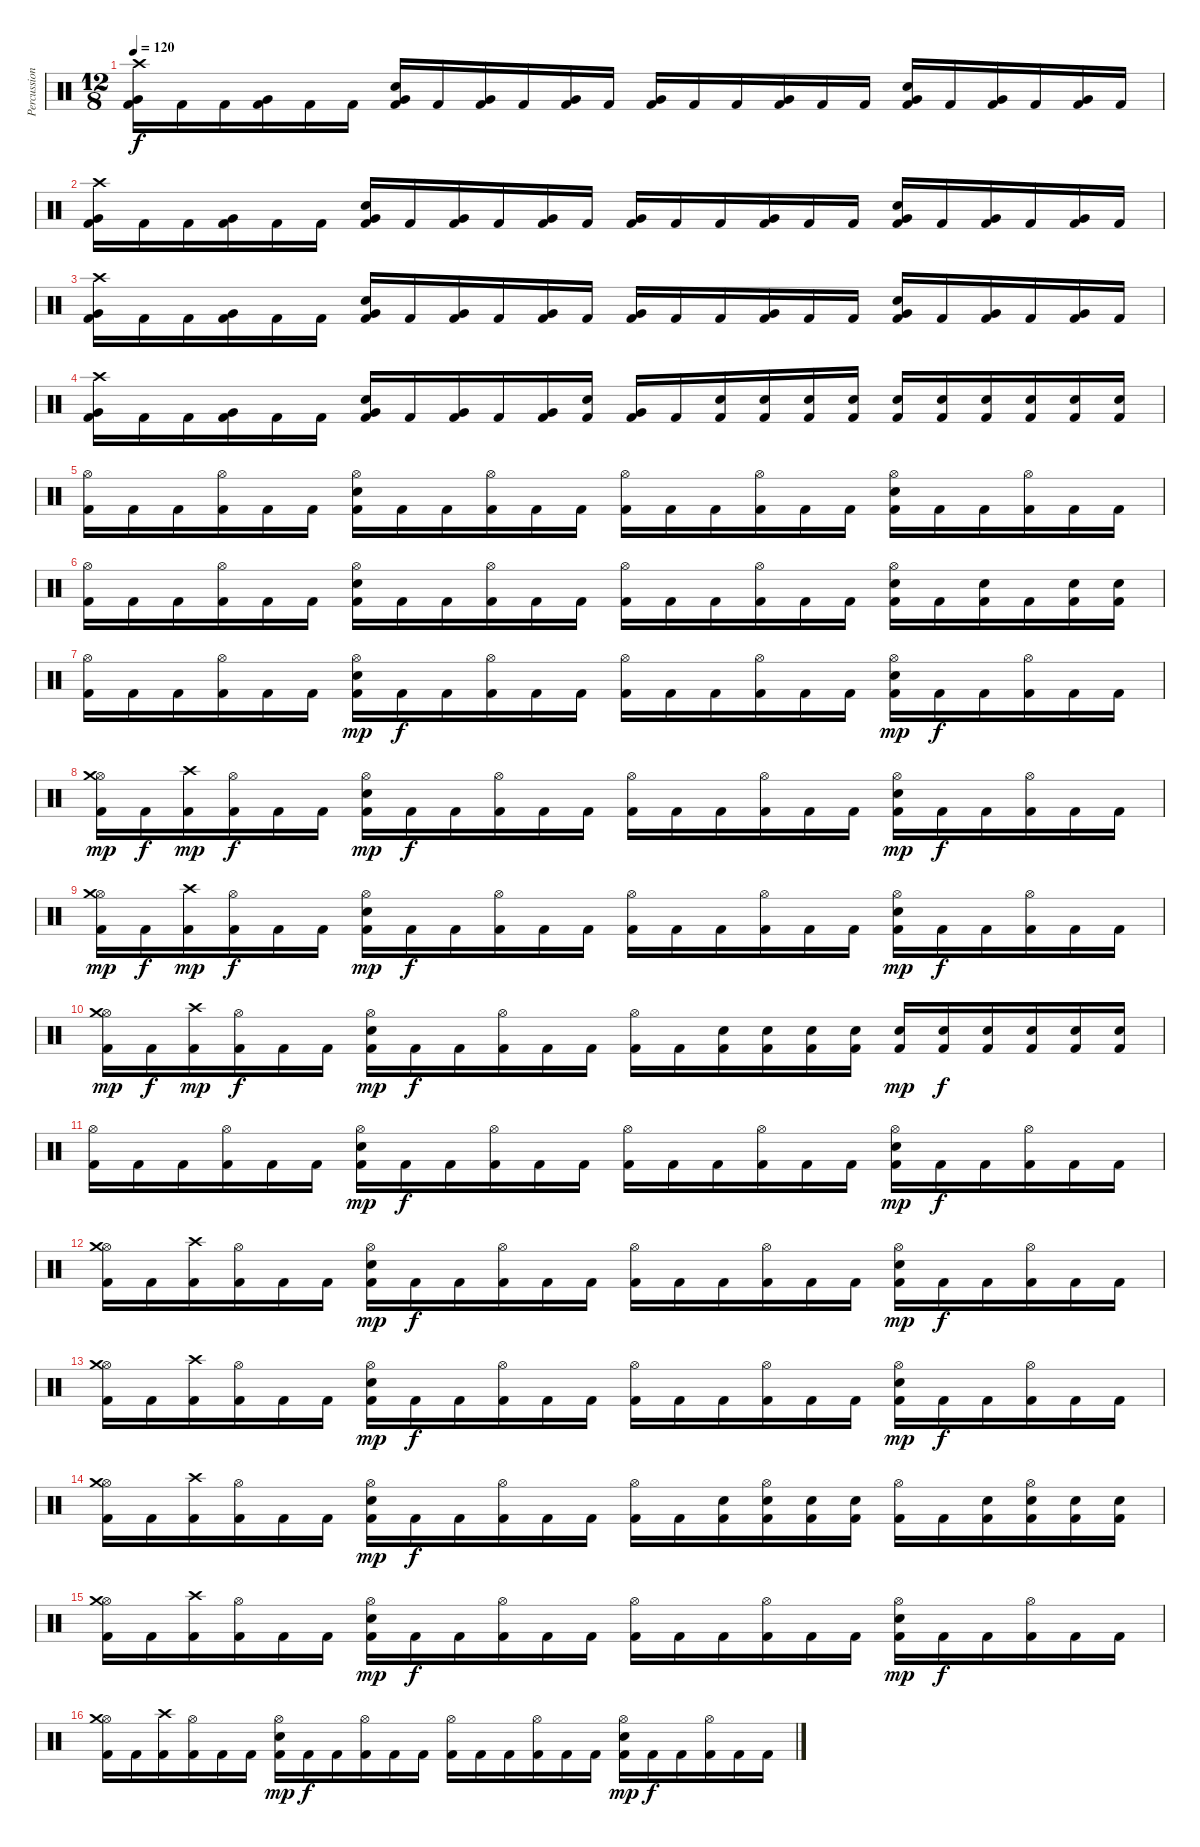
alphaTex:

\track ("Percussions" "Percussion") {instrument percussion}
\staff {score}
\articulation defaults
\ts (12 8)
\tempo 120
\clef neutral
\ks c
("Very Low Tom (hit)" "Kick (hit) 2" "Crash high (hit)").16{dy f} "Kick (hit) 2".16 "Kick (hit) 2".16 ("Very Low Tom (hit)" "Kick (hit) 2").16 "Kick (hit) 2".16 "Kick (hit) 2".16 ("Very Low Tom (hit)" "Kick (hit) 2" "Snare (hit) 2").16 "Kick (hit) 2".16 ("Very Low Tom (hit)" "Kick (hit) 2").16 "Kick (hit) 2".16 ("Very Low Tom (hit)" "Kick (hit) 2").16 "Kick (hit) 2".16 ("Very Low Tom (hit)" "Kick (hit) 2").16 "Kick (hit) 2".16 "Kick (hit) 2".16 ("Very Low Tom (hit)" "Kick (hit) 2").16 "Kick (hit) 2".16 "Kick (hit) 2".16 ("Very Low Tom (hit)" "Kick (hit) 2" "Snare (hit) 2").16 "Kick (hit) 2".16 ("Very Low Tom (hit)" "Kick (hit) 2").16 "Kick (hit) 2".16 ("Very Low Tom (hit)" "Kick (hit) 2").16 "Kick (hit) 2".16 |
("Very Low Tom (hit)" "Kick (hit) 2" "Crash high (hit)").16 "Kick (hit) 2".16 "Kick (hit) 2".16 ("Very Low Tom (hit)" "Kick (hit) 2").16 "Kick (hit) 2".16 "Kick (hit) 2".16 ("Very Low Tom (hit)" "Kick (hit) 2" "Snare (hit) 2").16 "Kick (hit) 2".16 ("Very Low Tom (hit)" "Kick (hit) 2").16 "Kick (hit) 2".16 ("Very Low Tom (hit)" "Kick (hit) 2").16 "Kick (hit) 2".16 ("Very Low Tom (hit)" "Kick (hit) 2").16 "Kick (hit) 2".16 "Kick (hit) 2".16 ("Very Low Tom (hit)" "Kick (hit) 2").16 "Kick (hit) 2".16 "Kick (hit) 2".16 ("Very Low Tom (hit)" "Kick (hit) 2" "Snare (hit) 2").16 "Kick (hit) 2".16 ("Very Low Tom (hit)" "Kick (hit) 2").16 "Kick (hit) 2".16 ("Very Low Tom (hit)" "Kick (hit) 2").16 "Kick (hit) 2".16 |
("Very Low Tom (hit)" "Kick (hit) 2" "Crash high (hit)").16 "Kick (hit) 2".16 "Kick (hit) 2".16 ("Very Low Tom (hit)" "Kick (hit) 2").16 "Kick (hit) 2".16 "Kick (hit) 2".16 ("Very Low Tom (hit)" "Kick (hit) 2" "Snare (hit) 2").16 "Kick (hit) 2".16 ("Very Low Tom (hit)" "Kick (hit) 2").16 "Kick (hit) 2".16 ("Very Low Tom (hit)" "Kick (hit) 2").16 "Kick (hit) 2".16 ("Very Low Tom (hit)" "Kick (hit) 2").16 "Kick (hit) 2".16 "Kick (hit) 2".16 ("Very Low Tom (hit)" "Kick (hit) 2").16 "Kick (hit) 2".16 "Kick (hit) 2".16 ("Very Low Tom (hit)" "Kick (hit) 2" "Snare (hit) 2").16 "Kick (hit) 2".16 ("Very Low Tom (hit)" "Kick (hit) 2").16 "Kick (hit) 2".16 ("Very Low Tom (hit)" "Kick (hit) 2").16 "Kick (hit) 2".16 |
("Very Low Tom (hit)" "Kick (hit) 2" "Crash high (hit)").16 "Kick (hit) 2".16 "Kick (hit) 2".16 ("Very Low Tom (hit)" "Kick (hit) 2").16 "Kick (hit) 2".16 "Kick (hit) 2".16 ("Very Low Tom (hit)" "Kick (hit) 2" "Snare (hit) 2").16 "Kick (hit) 2".16 ("Very Low Tom (hit)" "Kick (hit) 2").16 "Kick (hit) 2".16 ("Very Low Tom (hit)" "Kick (hit) 2").16 ("Kick (hit) 2" "Snare (hit) 2").16 ("Very Low Tom (hit)" "Kick (hit) 2").16 "Kick (hit) 2".16 ("Kick (hit) 2" "Snare (hit) 2").16 ("Kick (hit) 2" "Snare (hit) 2").16 ("Kick (hit) 2" "Snare (hit) 2").16 ("Kick (hit) 2" "Snare (hit) 2").16 ("Kick (hit) 2" "Snare (hit) 2").16 ("Kick (hit) 2" "Snare (hit) 2").16 ("Kick (hit) 2" "Snare (hit) 2").16 ("Kick (hit) 2" "Snare (hit) 2").16 ("Kick (hit) 2" "Snare (hit) 2").16 ("Kick (hit) 2" "Snare (hit) 2").16 |
("Hi-Hat (open)" "Kick (hit) 2").16 "Kick (hit) 2".16 "Kick (hit) 2".16 ("Hi-Hat (open)" "Kick (hit) 2").16 "Kick (hit) 2".16 "Kick (hit) 2".16 ("Hi-Hat (open)" "Kick (hit) 2" "Snare (hit) 2").16 "Kick (hit) 2".16 "Kick (hit) 2".16 ("Hi-Hat (open)" "Kick (hit) 2").16 "Kick (hit) 2".16 "Kick (hit) 2".16 ("Hi-Hat (open)" "Kick (hit) 2").16 "Kick (hit) 2".16 "Kick (hit) 2".16 ("Hi-Hat (open)" "Kick (hit) 2").16 "Kick (hit) 2".16 "Kick (hit) 2".16 ("Hi-Hat (open)" "Kick (hit) 2" "Snare (hit) 2").16 "Kick (hit) 2".16 "Kick (hit) 2".16 ("Hi-Hat (open)" "Kick (hit) 2").16 "Kick (hit) 2".16 "Kick (hit) 2".16 |
("Hi-Hat (open)" "Kick (hit) 2").16 "Kick (hit) 2".16 "Kick (hit) 2".16 ("Hi-Hat (open)" "Kick (hit) 2").16 "Kick (hit) 2".16 "Kick (hit) 2".16 ("Hi-Hat (open)" "Kick (hit) 2" "Snare (hit) 2").16 "Kick (hit) 2".16 "Kick (hit) 2".16 ("Hi-Hat (open)" "Kick (hit) 2").16 "Kick (hit) 2".16 "Kick (hit) 2".16 ("Hi-Hat (open)" "Kick (hit) 2").16 "Kick (hit) 2".16 "Kick (hit) 2".16 ("Hi-Hat (open)" "Kick (hit) 2").16 "Kick (hit) 2".16 "Kick (hit) 2".16 ("Hi-Hat (open)" "Kick (hit) 2" "Snare (hit) 2").16 "Kick (hit) 2".16 ("Kick (hit) 2" "Snare (hit) 2").16 "Kick (hit) 2".16 ("Kick (hit) 2" "Snare (hit) 2").16 ("Kick (hit) 2" "Snare (hit) 2").16 |
("Hi-Hat (open)" "Kick (hit) 2").16 "Kick (hit) 2".16 "Kick (hit) 2".16 ("Hi-Hat (open)" "Kick (hit) 2").16 "Kick (hit) 2".16 "Kick (hit) 2".16 ("Hi-Hat (open)" "Kick (hit) 2" "Snare (hit) 2").16{dy mp} "Kick (hit) 2".16{dy f} "Kick (hit) 2".16 ("Hi-Hat (open)" "Kick (hit) 2").16 "Kick (hit) 2".16 "Kick (hit) 2".16 ("Hi-Hat (open)" "Kick (hit) 2").16 "Kick (hit) 2".16 "Kick (hit) 2".16 ("Hi-Hat (open)" "Kick (hit) 2").16 "Kick (hit) 2".16 "Kick (hit) 2".16 ("Hi-Hat (open)" "Kick (hit) 2" "Snare (hit) 2").16{dy mp} "Kick (hit) 2".16{dy f} "Kick (hit) 2".16 ("Hi-Hat (open)" "Kick (hit) 2").16 "Kick (hit) 2".16 "Kick (hit) 2".16 |
("Hi-Hat (open)" "Kick (hit) 2" "Crash medium (hit)").16{dy mp} "Kick (hit) 2".16{dy f} ("Kick (hit) 2" "Crash high (hit)").16{dy mp} ("Hi-Hat (open)" "Kick (hit) 2").16{dy f} "Kick (hit) 2".16 "Kick (hit) 2".16 ("Hi-Hat (open)" "Kick (hit) 2" "Snare (hit) 2").16{dy mp} "Kick (hit) 2".16{dy f} "Kick (hit) 2".16 ("Hi-Hat (open)" "Kick (hit) 2").16 "Kick (hit) 2".16 "Kick (hit) 2".16 ("Hi-Hat (open)" "Kick (hit) 2").16 "Kick (hit) 2".16 "Kick (hit) 2".16 ("Hi-Hat (open)" "Kick (hit) 2").16 "Kick (hit) 2".16 "Kick (hit) 2".16 ("Hi-Hat (open)" "Kick (hit) 2" "Snare (hit) 2").16{dy mp} "Kick (hit) 2".16{dy f} "Kick (hit) 2".16 ("Hi-Hat (open)" "Kick (hit) 2").16 "Kick (hit) 2".16 "Kick (hit) 2".16 |
("Hi-Hat (open)" "Kick (hit) 2" "Crash medium (hit)").16{dy mp} "Kick (hit) 2".16{dy f} ("Kick (hit) 2" "Crash high (hit)").16{dy mp} ("Hi-Hat (open)" "Kick (hit) 2").16{dy f} "Kick (hit) 2".16 "Kick (hit) 2".16 ("Hi-Hat (open)" "Kick (hit) 2" "Snare (hit) 2").16{dy mp} "Kick (hit) 2".16{dy f} "Kick (hit) 2".16 ("Hi-Hat (open)" "Kick (hit) 2").16 "Kick (hit) 2".16 "Kick (hit) 2".16 ("Hi-Hat (open)" "Kick (hit) 2").16 "Kick (hit) 2".16 "Kick (hit) 2".16 ("Hi-Hat (open)" "Kick (hit) 2").16 "Kick (hit) 2".16 "Kick (hit) 2".16 ("Hi-Hat (open)" "Kick (hit) 2" "Snare (hit) 2").16{dy mp} "Kick (hit) 2".16{dy f} "Kick (hit) 2".16 ("Hi-Hat (open)" "Kick (hit) 2").16 "Kick (hit) 2".16 "Kick (hit) 2".16 |
("Hi-Hat (open)" "Kick (hit) 2" "Crash medium (hit)").16{dy mp} "Kick (hit) 2".16{dy f} ("Kick (hit) 2" "Crash high (hit)").16{dy mp} ("Hi-Hat (open)" "Kick (hit) 2").16{dy f} "Kick (hit) 2".16 "Kick (hit) 2".16 ("Hi-Hat (open)" "Kick (hit) 2" "Snare (hit) 2").16{dy mp} "Kick (hit) 2".16{dy f} "Kick (hit) 2".16 ("Hi-Hat (open)" "Kick (hit) 2").16 "Kick (hit) 2".16 "Kick (hit) 2".16 ("Hi-Hat (open)" "Kick (hit) 2").16 "Kick (hit) 2".16 ("Kick (hit) 2" "Snare (hit) 2").16 ("Kick (hit) 2" "Snare (hit) 2").16 ("Kick (hit) 2" "Snare (hit) 2").16 ("Kick (hit) 2" "Snare (hit) 2").16 ("Kick (hit) 2" "Snare (hit) 2").16{dy mp} ("Kick (hit) 2" "Snare (hit) 2").16{dy f} ("Kick (hit) 2" "Snare (hit) 2").16 ("Kick (hit) 2" "Snare (hit) 2").16 ("Kick (hit) 2" "Snare (hit) 2").16 ("Kick (hit) 2" "Snare (hit) 2").16 |
("Hi-Hat (open)" "Kick (hit) 2").16 "Kick (hit) 2".16 "Kick (hit) 2".16 ("Hi-Hat (open)" "Kick (hit) 2").16 "Kick (hit) 2".16 "Kick (hit) 2".16 ("Hi-Hat (open)" "Kick (hit) 2" "Snare (hit) 2").16{dy mp} "Kick (hit) 2".16{dy f} "Kick (hit) 2".16 ("Hi-Hat (open)" "Kick (hit) 2").16 "Kick (hit) 2".16 "Kick (hit) 2".16 ("Hi-Hat (open)" "Kick (hit) 2").16 "Kick (hit) 2".16 "Kick (hit) 2".16 ("Hi-Hat (open)" "Kick (hit) 2").16 "Kick (hit) 2".16 "Kick (hit) 2".16 ("Hi-Hat (open)" "Kick (hit) 2" "Snare (hit) 2").16{dy mp} "Kick (hit) 2".16{dy f} "Kick (hit) 2".16 ("Hi-Hat (open)" "Kick (hit) 2").16 "Kick (hit) 2".16 "Kick (hit) 2".16 |
("Hi-Hat (open)" "Kick (hit) 2" "Crash medium (hit)").16 "Kick (hit) 2".16 ("Kick (hit) 2" "Crash high (hit)").16 ("Hi-Hat (open)" "Kick (hit) 2").16 "Kick (hit) 2".16 "Kick (hit) 2".16 ("Hi-Hat (open)" "Kick (hit) 2" "Snare (hit) 2").16{dy mp} "Kick (hit) 2".16{dy f} "Kick (hit) 2".16 ("Hi-Hat (open)" "Kick (hit) 2").16 "Kick (hit) 2".16 "Kick (hit) 2".16 ("Hi-Hat (open)" "Kick (hit) 2").16 "Kick (hit) 2".16 "Kick (hit) 2".16 ("Hi-Hat (open)" "Kick (hit) 2").16 "Kick (hit) 2".16 "Kick (hit) 2".16 ("Hi-Hat (open)" "Kick (hit) 2" "Snare (hit) 2").16{dy mp} "Kick (hit) 2".16{dy f} "Kick (hit) 2".16 ("Hi-Hat (open)" "Kick (hit) 2").16 "Kick (hit) 2".16 "Kick (hit) 2".16 |
("Hi-Hat (open)" "Kick (hit) 2" "Crash medium (hit)").16 "Kick (hit) 2".16 ("Kick (hit) 2" "Crash high (hit)").16 ("Hi-Hat (open)" "Kick (hit) 2").16 "Kick (hit) 2".16 "Kick (hit) 2".16 ("Hi-Hat (open)" "Kick (hit) 2" "Snare (hit) 2").16{dy mp} "Kick (hit) 2".16{dy f} "Kick (hit) 2".16 ("Hi-Hat (open)" "Kick (hit) 2").16 "Kick (hit) 2".16 "Kick (hit) 2".16 ("Hi-Hat (open)" "Kick (hit) 2").16 "Kick (hit) 2".16 "Kick (hit) 2".16 ("Hi-Hat (open)" "Kick (hit) 2").16 "Kick (hit) 2".16 "Kick (hit) 2".16 ("Hi-Hat (open)" "Kick (hit) 2" "Snare (hit) 2").16{dy mp} "Kick (hit) 2".16{dy f} "Kick (hit) 2".16 ("Hi-Hat (open)" "Kick (hit) 2").16 "Kick (hit) 2".16 "Kick (hit) 2".16 |
("Hi-Hat (open)" "Kick (hit) 2" "Crash medium (hit)").16 "Kick (hit) 2".16 ("Kick (hit) 2" "Crash high (hit)").16 ("Hi-Hat (open)" "Kick (hit) 2").16 "Kick (hit) 2".16 "Kick (hit) 2".16 ("Hi-Hat (open)" "Kick (hit) 2" "Snare (hit) 2").16{dy mp} "Kick (hit) 2".16{dy f} "Kick (hit) 2".16 ("Hi-Hat (open)" "Kick (hit) 2").16 "Kick (hit) 2".16 "Kick (hit) 2".16 ("Hi-Hat (open)" "Kick (hit) 2").16 "Kick (hit) 2".16 ("Kick (hit) 2" "Snare (hit) 2").16 ("Hi-Hat (open)" "Kick (hit) 2" "Snare (hit) 2").16 ("Kick (hit) 2" "Snare (hit) 2").16 ("Kick (hit) 2" "Snare (hit) 2").16 ("Hi-Hat (open)" "Kick (hit) 2").16 "Kick (hit) 2".16 ("Kick (hit) 2" "Snare (hit) 2").16 ("Hi-Hat (open)" "Kick (hit) 2" "Snare (hit) 2").16 ("Kick (hit) 2" "Snare (hit) 2").16 ("Kick (hit) 2" "Snare (hit) 2").16 |
("Hi-Hat (open)" "Kick (hit) 2" "Crash medium (hit)").16 "Kick (hit) 2".16 ("Kick (hit) 2" "Crash high (hit)").16 ("Hi-Hat (open)" "Kick (hit) 2").16 "Kick (hit) 2".16 "Kick (hit) 2".16 ("Hi-Hat (open)" "Kick (hit) 2" "Snare (hit) 2").16{dy mp} "Kick (hit) 2".16{dy f} "Kick (hit) 2".16 ("Hi-Hat (open)" "Kick (hit) 2").16 "Kick (hit) 2".16 "Kick (hit) 2".16 ("Hi-Hat (open)" "Kick (hit) 2").16 "Kick (hit) 2".16 "Kick (hit) 2".16 ("Hi-Hat (open)" "Kick (hit) 2").16 "Kick (hit) 2".16 "Kick (hit) 2".16 ("Hi-Hat (open)" "Kick (hit) 2" "Snare (hit) 2").16{dy mp} "Kick (hit) 2".16{dy f} "Kick (hit) 2".16 ("Hi-Hat (open)" "Kick (hit) 2").16 "Kick (hit) 2".16 "Kick (hit) 2".16 |
("Hi-Hat (open)" "Kick (hit) 2" "Crash medium (hit)").16 "Kick (hit) 2".16 ("Kick (hit) 2" "Crash high (hit)").16 ("Hi-Hat (open)" "Kick (hit) 2").16 "Kick (hit) 2".16 "Kick (hit) 2".16 ("Hi-Hat (open)" "Kick (hit) 2" "Snare (hit) 2").16{dy mp} "Kick (hit) 2".16{dy f} "Kick (hit) 2".16 ("Hi-Hat (open)" "Kick (hit) 2").16 "Kick (hit) 2".16 "Kick (hit) 2".16 ("Hi-Hat (open)" "Kick (hit) 2").16 "Kick (hit) 2".16 "Kick (hit) 2".16 ("Hi-Hat (open)" "Kick (hit) 2").16 "Kick (hit) 2".16 "Kick (hit) 2".16 ("Hi-Hat (open)" "Kick (hit) 2" "Snare (hit) 2").16{dy mp} "Kick (hit) 2".16{dy f} "Kick (hit) 2".16 ("Hi-Hat (open)" "Kick (hit) 2").16 "Kick (hit) 2".16 "Kick (hit) 2".16
